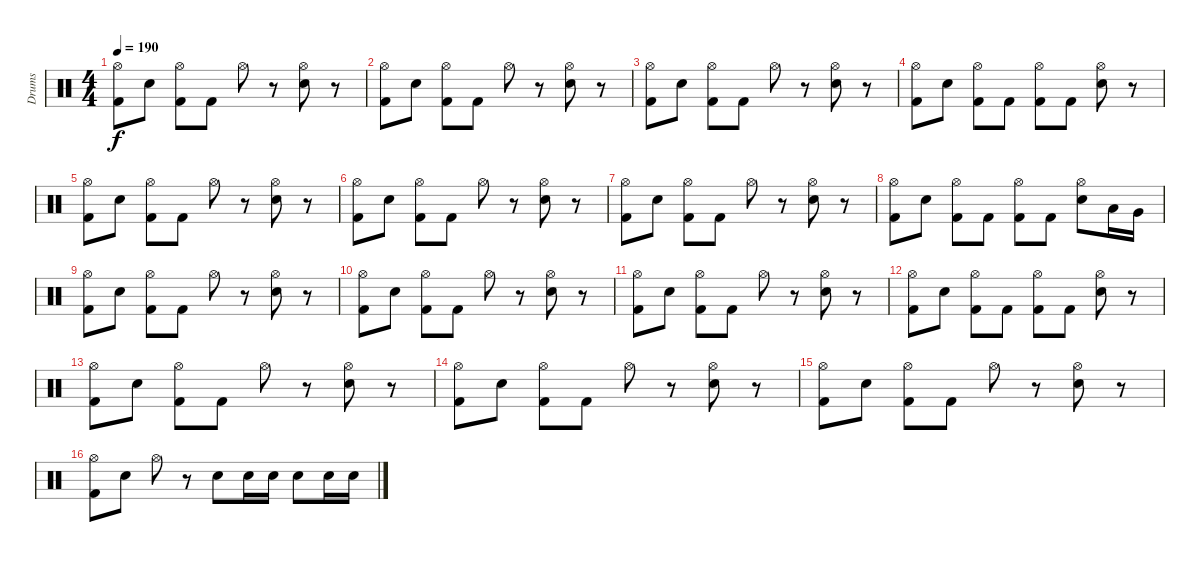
\track ("Drums" "Drums") {instrument percussion}
\staff {score}
\articulation defaults
\ts (4 4)
\tempo 190
\clef neutral
\ks c
("Hi-Hat (open)" "Kick (hit) 2").8{dy f} "Electric Snare (hit)".8 ("Hi-Hat (open)" "Kick (hit) 2").8 "Kick (hit) 2".8 "Hi-Hat (open)".8 r.8 ("Hi-Hat (open)" "Electric Snare (hit)").8 r.8 |
("Hi-Hat (open)" "Kick (hit) 2").8 "Electric Snare (hit)".8 ("Hi-Hat (open)" "Kick (hit) 2").8 "Kick (hit) 2".8 "Hi-Hat (open)".8 r.8 ("Hi-Hat (open)" "Electric Snare (hit)").8 r.8 |
("Hi-Hat (open)" "Kick (hit) 2").8 "Electric Snare (hit)".8 ("Hi-Hat (open)" "Kick (hit) 2").8 "Kick (hit) 2".8 "Hi-Hat (open)".8 r.8 ("Hi-Hat (open)" "Electric Snare (hit)").8 r.8 |
("Hi-Hat (open)" "Kick (hit) 2").8 "Electric Snare (hit)".8 ("Hi-Hat (open)" "Kick (hit) 2").8 "Kick (hit) 2".8 ("Hi-Hat (open)" "Kick (hit) 2").8 "Kick (hit) 2".8 ("Hi-Hat (open)" "Electric Snare (hit)").8 r.8 |
("Hi-Hat (open)" "Kick (hit) 2").8 "Electric Snare (hit)".8 ("Hi-Hat (open)" "Kick (hit) 2").8 "Kick (hit) 2".8 "Hi-Hat (open)".8 r.8 ("Hi-Hat (open)" "Electric Snare (hit)").8 r.8 |
("Hi-Hat (open)" "Kick (hit) 2").8 "Electric Snare (hit)".8 ("Hi-Hat (open)" "Kick (hit) 2").8 "Kick (hit) 2".8 "Hi-Hat (open)".8 r.8 ("Hi-Hat (open)" "Electric Snare (hit)").8 r.8 |
("Hi-Hat (open)" "Kick (hit) 2").8 "Electric Snare (hit)".8 ("Hi-Hat (open)" "Kick (hit) 2").8 "Kick (hit) 2".8 "Hi-Hat (open)".8 r.8 ("Hi-Hat (open)" "Electric Snare (hit)").8 r.8 |
("Hi-Hat (open)" "Kick (hit) 2").8 "Electric Snare (hit)".8 ("Hi-Hat (open)" "Kick (hit) 2").8 "Kick (hit) 2".8 ("Hi-Hat (open)" "Kick (hit) 2").8 "Kick (hit) 2".8 ("Hi-Hat (open)" "Electric Snare (hit)").8 "Low Tom (hit)".16 "Very Low Tom (hit)".16 |
("Hi-Hat (open)" "Kick (hit) 2").8 "Electric Snare (hit)".8 ("Hi-Hat (open)" "Kick (hit) 2").8 "Kick (hit) 2".8 "Hi-Hat (open)".8 r.8 ("Hi-Hat (open)" "Electric Snare (hit)").8 r.8 |
("Hi-Hat (open)" "Kick (hit) 2").8 "Electric Snare (hit)".8 ("Hi-Hat (open)" "Kick (hit) 2").8 "Kick (hit) 2".8 "Hi-Hat (open)".8 r.8 ("Hi-Hat (open)" "Electric Snare (hit)").8 r.8 |
("Hi-Hat (open)" "Kick (hit) 2").8 "Electric Snare (hit)".8 ("Hi-Hat (open)" "Kick (hit) 2").8 "Kick (hit) 2".8 "Hi-Hat (open)".8 r.8 ("Hi-Hat (open)" "Electric Snare (hit)").8 r.8 |
("Hi-Hat (open)" "Kick (hit) 2").8 "Electric Snare (hit)".8 ("Hi-Hat (open)" "Kick (hit) 2").8 "Kick (hit) 2".8 ("Hi-Hat (open)" "Kick (hit) 2").8 "Kick (hit) 2".8 ("Hi-Hat (open)" "Electric Snare (hit)").8 r.8 |
("Hi-Hat (open)" "Kick (hit) 2").8 "Electric Snare (hit)".8 ("Hi-Hat (open)" "Kick (hit) 2").8 "Kick (hit) 2".8 "Hi-Hat (open)".8 r.8 ("Hi-Hat (open)" "Electric Snare (hit)").8 r.8 |
("Hi-Hat (open)" "Kick (hit) 2").8 "Electric Snare (hit)".8 ("Hi-Hat (open)" "Kick (hit) 2").8 "Kick (hit) 2".8 "Hi-Hat (open)".8 r.8 ("Hi-Hat (open)" "Electric Snare (hit)").8 r.8 |
("Hi-Hat (open)" "Kick (hit) 2").8 "Electric Snare (hit)".8 ("Hi-Hat (open)" "Kick (hit) 2").8 "Kick (hit) 2".8 "Hi-Hat (open)".8 r.8 ("Hi-Hat (open)" "Electric Snare (hit)").8 r.8 |
("Hi-Hat (open)" "Kick (hit) 2").8 "Electric Snare (hit)".8 "Hi-Hat (open)".8 r.8 "Electric Snare (hit)".8 "Electric Snare (hit)".16 "Electric Snare (hit)".16 "Electric Snare (hit)".8 "Electric Snare (hit)".16 "Electric Snare (hit)".16
